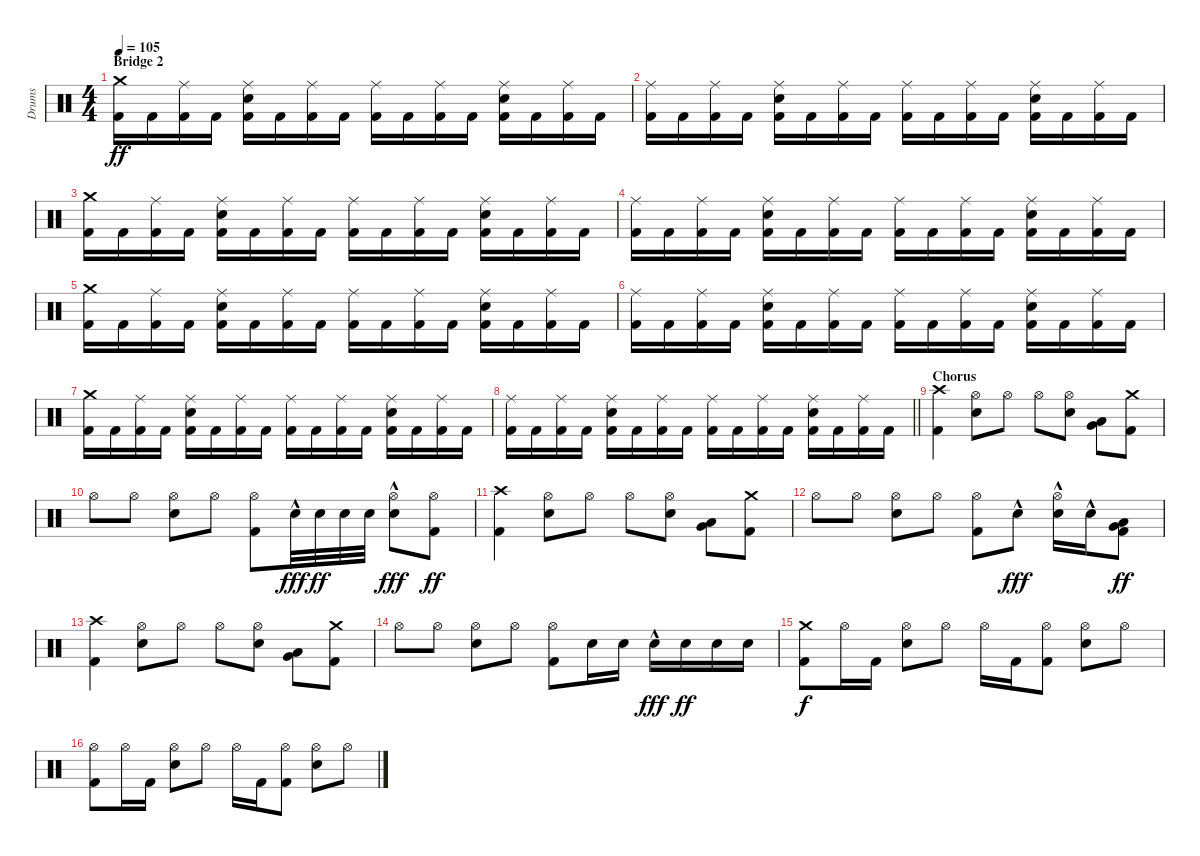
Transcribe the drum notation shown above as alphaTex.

\track ("Drums" "Drums") {instrument percussion}
\staff {score}
\articulation defaults
\ts (4 4)
\section ("" "Bridge 2")
\tempo 105
\clef neutral
\ks c
("Crash medium (hit)" "Kick (hit) 2").16{dy ff} "Kick (hit) 2".16 ("Ride (middle)" "Kick (hit) 2").16 "Kick (hit) 2".16 ("Ride (middle)" "Electric Snare (hit)" "Kick (hit) 2").16 "Kick (hit) 2".16 ("Ride (middle)" "Kick (hit) 2").16 "Kick (hit) 2".16 ("Ride (middle)" "Kick (hit) 2").16 "Kick (hit) 2".16 ("Ride (middle)" "Kick (hit) 2").16 "Kick (hit) 2".16 ("Ride (middle)" "Electric Snare (hit)" "Kick (hit) 2").16 "Kick (hit) 2".16 ("Ride (middle)" "Kick (hit) 2").16 "Kick (hit) 2".16 |
("Ride (middle)" "Kick (hit) 2").16 "Kick (hit) 2".16 ("Ride (middle)" "Kick (hit) 2").16 "Kick (hit) 2".16 ("Ride (middle)" "Electric Snare (hit)" "Kick (hit) 2").16 "Kick (hit) 2".16 ("Ride (middle)" "Kick (hit) 2").16 "Kick (hit) 2".16 ("Ride (middle)" "Kick (hit) 2").16 "Kick (hit) 2".16 ("Ride (middle)" "Kick (hit) 2").16 "Kick (hit) 2".16 ("Ride (middle)" "Electric Snare (hit)" "Kick (hit) 2").16 "Kick (hit) 2".16 ("Ride (middle)" "Kick (hit) 2").16 "Kick (hit) 2".16 |
("Crash medium (hit)" "Kick (hit) 2").16 "Kick (hit) 2".16 ("Ride (middle)" "Kick (hit) 2").16 "Kick (hit) 2".16 ("Ride (middle)" "Electric Snare (hit)" "Kick (hit) 2").16 "Kick (hit) 2".16 ("Ride (middle)" "Kick (hit) 2").16 "Kick (hit) 2".16 ("Ride (middle)" "Kick (hit) 2").16 "Kick (hit) 2".16 ("Ride (middle)" "Kick (hit) 2").16 "Kick (hit) 2".16 ("Ride (middle)" "Electric Snare (hit)" "Kick (hit) 2").16 "Kick (hit) 2".16 ("Ride (middle)" "Kick (hit) 2").16 "Kick (hit) 2".16 |
("Ride (middle)" "Kick (hit) 2").16 "Kick (hit) 2".16 ("Ride (middle)" "Kick (hit) 2").16 "Kick (hit) 2".16 ("Ride (middle)" "Electric Snare (hit)" "Kick (hit) 2").16 "Kick (hit) 2".16 ("Ride (middle)" "Kick (hit) 2").16 "Kick (hit) 2".16 ("Ride (middle)" "Kick (hit) 2").16 "Kick (hit) 2".16 ("Ride (middle)" "Kick (hit) 2").16 "Kick (hit) 2".16 ("Ride (middle)" "Electric Snare (hit)" "Kick (hit) 2").16 "Kick (hit) 2".16 ("Ride (middle)" "Kick (hit) 2").16 "Kick (hit) 2".16 |
("Crash medium (hit)" "Kick (hit) 2").16 "Kick (hit) 2".16 ("Ride (middle)" "Kick (hit) 2").16 "Kick (hit) 2".16 ("Ride (middle)" "Electric Snare (hit)" "Kick (hit) 2").16 "Kick (hit) 2".16 ("Ride (middle)" "Kick (hit) 2").16 "Kick (hit) 2".16 ("Ride (middle)" "Kick (hit) 2").16 "Kick (hit) 2".16 ("Ride (middle)" "Kick (hit) 2").16 "Kick (hit) 2".16 ("Ride (middle)" "Electric Snare (hit)" "Kick (hit) 2").16 "Kick (hit) 2".16 ("Ride (middle)" "Kick (hit) 2").16 "Kick (hit) 2".16 |
("Ride (middle)" "Kick (hit) 2").16 "Kick (hit) 2".16 ("Ride (middle)" "Kick (hit) 2").16 "Kick (hit) 2".16 ("Ride (middle)" "Electric Snare (hit)" "Kick (hit) 2").16 "Kick (hit) 2".16 ("Ride (middle)" "Kick (hit) 2").16 "Kick (hit) 2".16 ("Ride (middle)" "Kick (hit) 2").16 "Kick (hit) 2".16 ("Ride (middle)" "Kick (hit) 2").16 "Kick (hit) 2".16 ("Ride (middle)" "Electric Snare (hit)" "Kick (hit) 2").16 "Kick (hit) 2".16 ("Ride (middle)" "Kick (hit) 2").16 "Kick (hit) 2".16 |
("Crash medium (hit)" "Kick (hit) 2").16 "Kick (hit) 2".16 ("Ride (middle)" "Kick (hit) 2").16 "Kick (hit) 2".16 ("Ride (middle)" "Electric Snare (hit)" "Kick (hit) 2").16 "Kick (hit) 2".16 ("Ride (middle)" "Kick (hit) 2").16 "Kick (hit) 2".16 ("Ride (middle)" "Kick (hit) 2").16 "Kick (hit) 2".16 ("Ride (middle)" "Kick (hit) 2").16 "Kick (hit) 2".16 ("Ride (middle)" "Electric Snare (hit)" "Kick (hit) 2").16 "Kick (hit) 2".16 ("Ride (middle)" "Kick (hit) 2").16 "Kick (hit) 2".16 |
\barLineRight lightlight
("Ride (middle)" "Kick (hit) 2").16 "Kick (hit) 2".16 ("Ride (middle)" "Kick (hit) 2").16 "Kick (hit) 2".16 ("Ride (middle)" "Electric Snare (hit)" "Kick (hit) 2").16 "Kick (hit) 2".16 ("Ride (middle)" "Kick (hit) 2").16 "Kick (hit) 2".16 ("Ride (middle)" "Kick (hit) 2").16 "Kick (hit) 2".16 ("Ride (middle)" "Kick (hit) 2").16 "Kick (hit) 2".16 ("Ride (middle)" "Electric Snare (hit)" "Kick (hit) 2").16 "Kick (hit) 2".16 ("Ride (middle)" "Kick (hit) 2").16 "Kick (hit) 2".16 |
\section ("" "Chorus")
("Crash high (hit)" "Kick (hit) 2").4 ("Hi-Hat (open)" "Electric Snare (hit)").8 "Hi-Hat (open)".8 "Hi-Hat (open)".8 ("Hi-Hat (open)" "Electric Snare (hit)").8 ("Very Low Tom (hit)" "Low Floor Tom (hit)").8 ("Crash medium (hit)" "Kick (hit) 2").8 |
"Hi-Hat (open)".8 "Hi-Hat (open)".8 ("Hi-Hat (open)" "Electric Snare (hit)").8 "Hi-Hat (open)".8 ("Hi-Hat (open)" "Kick (hit) 2").8 "Electric Snare (hit)"{hac}.32{dy fff} "Electric Snare (hit)".32{dy ff} "Electric Snare (hit)".32 "Electric Snare (hit)".32 ("Hi-Hat (open)" "Electric Snare (hit)"{hac}).8{dy fff} ("Hi-Hat (open)" "Kick (hit) 2").8{dy ff} |
("Crash high (hit)" "Kick (hit) 2").4 ("Hi-Hat (open)" "Electric Snare (hit)").8 "Hi-Hat (open)".8 "Hi-Hat (open)".8 ("Hi-Hat (open)" "Electric Snare (hit)").8 ("Very Low Tom (hit)" "Low Floor Tom (hit)").8 ("Crash medium (hit)" "Kick (hit) 2").8 |
"Hi-Hat (open)".8 "Hi-Hat (open)".8 ("Hi-Hat (open)" "Electric Snare (hit)").8 "Hi-Hat (open)".8 ("Hi-Hat (open)" "Kick (hit) 2").8 "Electric Snare (hit)"{hac}.8{dy fff} ("Hi-Hat (open)" "Electric Snare (hit)"{hac}).16 "Electric Snare (hit)"{hac}.16 ("Very Low Tom (hit)" "Low Floor Tom (hit)" "Kick (hit) 2").8{dy ff} |
("Crash high (hit)" "Kick (hit) 2").4 ("Hi-Hat (open)" "Electric Snare (hit)").8 "Hi-Hat (open)".8 "Hi-Hat (open)".8 ("Hi-Hat (open)" "Electric Snare (hit)").8 ("Very Low Tom (hit)" "Low Floor Tom (hit)").8 ("Crash medium (hit)" "Kick (hit) 2").8 |
"Hi-Hat (open)".8 "Hi-Hat (open)".8 ("Hi-Hat (open)" "Electric Snare (hit)").8 "Hi-Hat (open)".8 ("Hi-Hat (open)" "Kick (hit) 2").8 "Electric Snare (hit)".16 "Electric Snare (hit)".16 "Electric Snare (hit)"{hac}.16{dy fff} "Electric Snare (hit)".16{dy ff} "Electric Snare (hit)".16 "Electric Snare (hit)".16 |
("Crash medium (hit)" "Kick (hit) 2").8{dy f} "Hi-Hat (open)".16 "Kick (hit) 2".16 ("Hi-Hat (open)" "Electric Snare (hit)").8 "Hi-Hat (open)".8 "Hi-Hat (open)".16 "Kick (hit) 2".16 ("Hi-Hat (open)" "Kick (hit) 2").8 ("Hi-Hat (open)" "Electric Snare (hit)").8 "Hi-Hat (open)".8 |
("Hi-Hat (open)" "Kick (hit) 2").8 "Hi-Hat (open)".16 "Kick (hit) 2".16 ("Hi-Hat (open)" "Electric Snare (hit)").8 "Hi-Hat (open)".8 "Hi-Hat (open)".16 "Kick (hit) 2".16 ("Hi-Hat (open)" "Kick (hit) 2").8 ("Hi-Hat (open)" "Electric Snare (hit)").8 "Hi-Hat (open)".8
